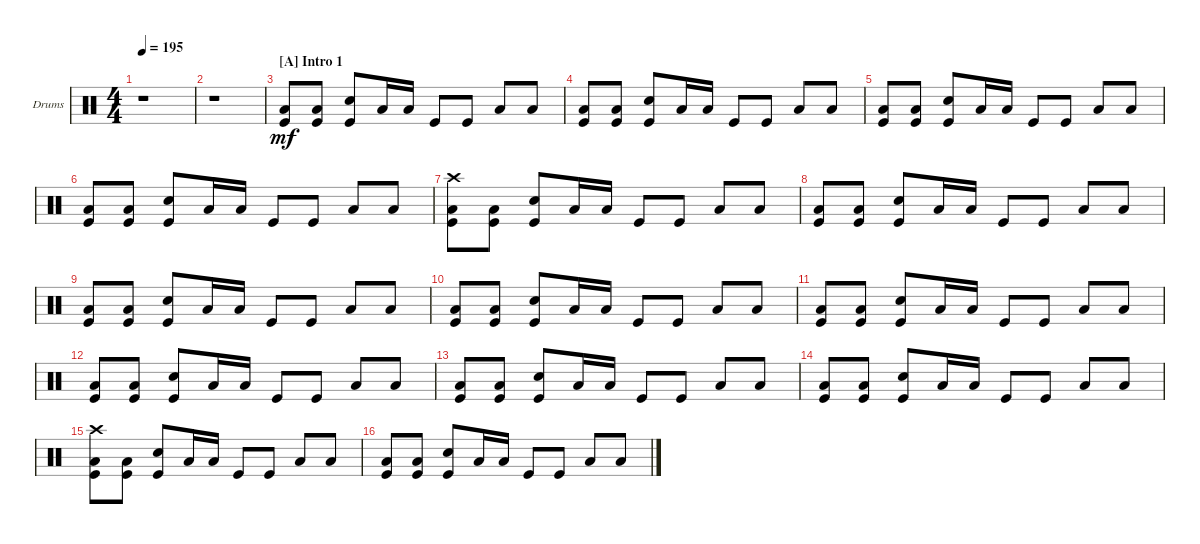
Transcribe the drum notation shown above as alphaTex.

\defaultSystemsLayout 4
\bracketExtendMode groupsimilarinstruments
\firstSystemTrackNameOrientation horizontal
\otherSystemsTrackNameOrientation horizontal
\track ("Drumkit" "Drums") {instrument percussion}
\staff {score}
\articulation defaults
\ts (4 4)
\tempo 195
\clef neutral
\ks c
r.1{dy mf} |
r.1 |
\section ("A" "Intro 1")
("Kick (hit)" "Low Tom (hit)").8 ("Kick (hit)" "Low Tom (hit)").8 ("Snare (hit) 2" "Kick (hit)").8 "Low Tom (hit)".16 "Low Tom (hit)".16 "Kick (hit)".8 "Kick (hit)".8 "Low Tom (hit)".8 "Low Tom (hit)".8 |
("Kick (hit)" "Low Tom (hit)").8 ("Kick (hit)" "Low Tom (hit)").8 ("Snare (hit) 2" "Kick (hit)").8 "Low Tom (hit)".16 "Low Tom (hit)".16 "Kick (hit)".8 "Kick (hit)".8 "Low Tom (hit)".8 "Low Tom (hit)".8 |
("Kick (hit)" "Low Tom (hit)").8 ("Kick (hit)" "Low Tom (hit)").8 ("Snare (hit) 2" "Kick (hit)").8 "Low Tom (hit)".16 "Low Tom (hit)".16 "Kick (hit)".8 "Kick (hit)".8 "Low Tom (hit)".8 "Low Tom (hit)".8 |
("Kick (hit)" "Low Tom (hit)").8 ("Kick (hit)" "Low Tom (hit)").8 ("Snare (hit) 2" "Kick (hit)").8 "Low Tom (hit)".16 "Low Tom (hit)".16 "Kick (hit)".8 "Kick (hit)".8 "Low Tom (hit)".8 "Low Tom (hit)".8 |
("Kick (hit)" "Low Tom (hit)" "Crash high (hit)").8 ("Kick (hit)" "Low Tom (hit)").8 ("Snare (hit) 2" "Kick (hit)").8 "Low Tom (hit)".16 "Low Tom (hit)".16 "Kick (hit)".8 "Kick (hit)".8 "Low Tom (hit)".8 "Low Tom (hit)".8 |
("Kick (hit)" "Low Tom (hit)").8 ("Kick (hit)" "Low Tom (hit)").8 ("Snare (hit) 2" "Kick (hit)").8 "Low Tom (hit)".16 "Low Tom (hit)".16 "Kick (hit)".8 "Kick (hit)".8 "Low Tom (hit)".8 "Low Tom (hit)".8 |
("Kick (hit)" "Low Tom (hit)").8 ("Kick (hit)" "Low Tom (hit)").8 ("Snare (hit) 2" "Kick (hit)").8 "Low Tom (hit)".16 "Low Tom (hit)".16 "Kick (hit)".8 "Kick (hit)".8 "Low Tom (hit)".8 "Low Tom (hit)".8 |
("Kick (hit)" "Low Tom (hit)").8 ("Kick (hit)" "Low Tom (hit)").8 ("Snare (hit) 2" "Kick (hit)").8 "Low Tom (hit)".16 "Low Tom (hit)".16 "Kick (hit)".8 "Kick (hit)".8 "Low Tom (hit)".8 "Low Tom (hit)".8 |
("Kick (hit)" "Low Tom (hit)").8 ("Kick (hit)" "Low Tom (hit)").8 ("Snare (hit) 2" "Kick (hit)").8 "Low Tom (hit)".16 "Low Tom (hit)".16 "Kick (hit)".8 "Kick (hit)".8 "Low Tom (hit)".8 "Low Tom (hit)".8 |
("Kick (hit)" "Low Tom (hit)").8 ("Kick (hit)" "Low Tom (hit)").8 ("Snare (hit) 2" "Kick (hit)").8 "Low Tom (hit)".16 "Low Tom (hit)".16 "Kick (hit)".8 "Kick (hit)".8 "Low Tom (hit)".8 "Low Tom (hit)".8 |
("Kick (hit)" "Low Tom (hit)").8 ("Kick (hit)" "Low Tom (hit)").8 ("Snare (hit) 2" "Kick (hit)").8 "Low Tom (hit)".16 "Low Tom (hit)".16 "Kick (hit)".8 "Kick (hit)".8 "Low Tom (hit)".8 "Low Tom (hit)".8 |
("Kick (hit)" "Low Tom (hit)").8 ("Kick (hit)" "Low Tom (hit)").8 ("Snare (hit) 2" "Kick (hit)").8 "Low Tom (hit)".16 "Low Tom (hit)".16 "Kick (hit)".8 "Kick (hit)".8 "Low Tom (hit)".8 "Low Tom (hit)".8 |
("Kick (hit)" "Low Tom (hit)" "Crash high (hit)").8 ("Kick (hit)" "Low Tom (hit)").8 ("Snare (hit) 2" "Kick (hit)").8 "Low Tom (hit)".16 "Low Tom (hit)".16 "Kick (hit)".8 "Kick (hit)".8 "Low Tom (hit)".8 "Low Tom (hit)".8 |
("Kick (hit)" "Low Tom (hit)").8 ("Kick (hit)" "Low Tom (hit)").8 ("Snare (hit) 2" "Kick (hit)").8 "Low Tom (hit)".16 "Low Tom (hit)".16 "Kick (hit)".8 "Kick (hit)".8 "Low Tom (hit)".8 "Low Tom (hit)".8
